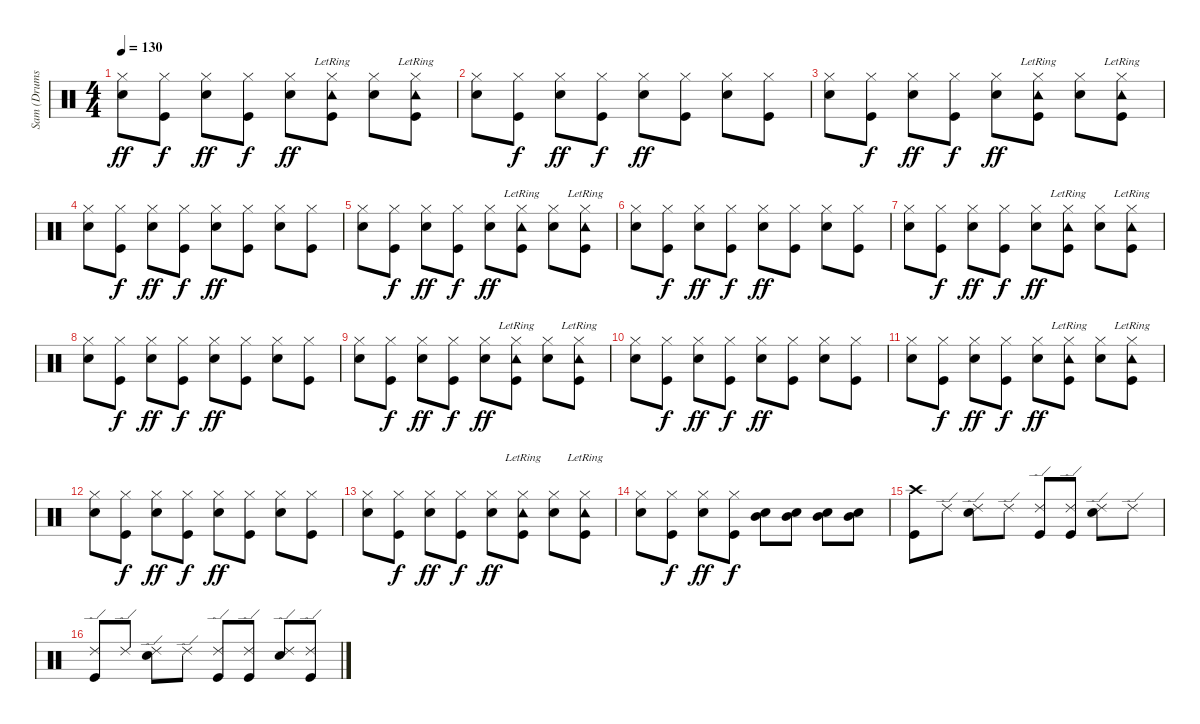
\track ("Sam (Drums)" "Sam (Drums") {instrument percussion}
\staff {score}
\articulation defaults
\ts (4 4)
\tempo 130
\clef neutral
\ks c
("Hi-Hat (closed)" "Snare (hit) 2").8{dy ff} ("Hi-Hat (closed)" "Kick (hit)").8{dy f} ("Hi-Hat (closed)" "Snare (hit) 2").8{dy ff} ("Hi-Hat (closed)" "Kick (hit)").8{dy f} ("Hi-Hat (closed)" "Snare (hit) 2").8{dy ff} ("Hi-Hat (closed)" "Tambourine (hit)"{lr} "Kick (hit)").8 ("Hi-Hat (closed)" "Snare (hit) 2").8 ("Hi-Hat (closed)" "Tambourine (hit)"{lr} "Kick (hit)").8 |
("Hi-Hat (closed)" "Snare (hit) 2").8 ("Hi-Hat (closed)" "Kick (hit)").8{dy f} ("Hi-Hat (closed)" "Snare (hit) 2").8{dy ff} ("Hi-Hat (closed)" "Kick (hit)").8{dy f} ("Hi-Hat (closed)" "Snare (hit) 2").8{dy ff} ("Hi-Hat (closed)" "Kick (hit)").8 ("Hi-Hat (closed)" "Snare (hit) 2").8 ("Hi-Hat (closed)" "Kick (hit)").8 |
("Hi-Hat (closed)" "Snare (hit) 2").8 ("Hi-Hat (closed)" "Kick (hit)").8{dy f} ("Hi-Hat (closed)" "Snare (hit) 2").8{dy ff} ("Hi-Hat (closed)" "Kick (hit)").8{dy f} ("Hi-Hat (closed)" "Snare (hit) 2").8{dy ff} ("Hi-Hat (closed)" "Tambourine (hit)"{lr} "Kick (hit)").8 ("Hi-Hat (closed)" "Snare (hit) 2").8 ("Hi-Hat (closed)" "Tambourine (hit)"{lr} "Kick (hit)").8 |
("Hi-Hat (closed)" "Snare (hit) 2").8 ("Hi-Hat (closed)" "Kick (hit)").8{dy f} ("Hi-Hat (closed)" "Snare (hit) 2").8{dy ff} ("Hi-Hat (closed)" "Kick (hit)").8{dy f} ("Hi-Hat (closed)" "Snare (hit) 2").8{dy ff} ("Hi-Hat (closed)" "Kick (hit)").8 ("Hi-Hat (closed)" "Snare (hit) 2").8 ("Hi-Hat (closed)" "Kick (hit)").8 |
("Hi-Hat (closed)" "Snare (hit) 2").8 ("Hi-Hat (closed)" "Kick (hit)").8{dy f} ("Hi-Hat (closed)" "Snare (hit) 2").8{dy ff} ("Hi-Hat (closed)" "Kick (hit)").8{dy f} ("Hi-Hat (closed)" "Snare (hit) 2").8{dy ff} ("Hi-Hat (closed)" "Tambourine (hit)"{lr} "Kick (hit)").8 ("Hi-Hat (closed)" "Snare (hit) 2").8 ("Hi-Hat (closed)" "Tambourine (hit)"{lr} "Kick (hit)").8 |
("Hi-Hat (closed)" "Snare (hit) 2").8 ("Hi-Hat (closed)" "Kick (hit)").8{dy f} ("Hi-Hat (closed)" "Snare (hit) 2").8{dy ff} ("Hi-Hat (closed)" "Kick (hit)").8{dy f} ("Hi-Hat (closed)" "Snare (hit) 2").8{dy ff} ("Hi-Hat (closed)" "Kick (hit)").8 ("Hi-Hat (closed)" "Snare (hit) 2").8 ("Hi-Hat (closed)" "Kick (hit)").8 |
("Hi-Hat (closed)" "Snare (hit) 2").8 ("Hi-Hat (closed)" "Kick (hit)").8{dy f} ("Hi-Hat (closed)" "Snare (hit) 2").8{dy ff} ("Hi-Hat (closed)" "Kick (hit)").8{dy f} ("Hi-Hat (closed)" "Snare (hit) 2").8{dy ff} ("Hi-Hat (closed)" "Tambourine (hit)"{lr} "Kick (hit)").8 ("Hi-Hat (closed)" "Snare (hit) 2").8 ("Hi-Hat (closed)" "Tambourine (hit)"{lr} "Kick (hit)").8 |
("Hi-Hat (closed)" "Snare (hit) 2").8 ("Hi-Hat (closed)" "Kick (hit)").8{dy f} ("Hi-Hat (closed)" "Snare (hit) 2").8{dy ff} ("Hi-Hat (closed)" "Kick (hit)").8{dy f} ("Hi-Hat (closed)" "Snare (hit) 2").8{dy ff} ("Hi-Hat (closed)" "Kick (hit)").8 ("Hi-Hat (closed)" "Snare (hit) 2").8 ("Hi-Hat (closed)" "Kick (hit)").8 |
("Hi-Hat (closed)" "Snare (hit) 2").8 ("Hi-Hat (closed)" "Kick (hit)").8{dy f} ("Hi-Hat (closed)" "Snare (hit) 2").8{dy ff} ("Hi-Hat (closed)" "Kick (hit)").8{dy f} ("Hi-Hat (closed)" "Snare (hit) 2").8{dy ff} ("Hi-Hat (closed)" "Tambourine (hit)"{lr} "Kick (hit)").8 ("Hi-Hat (closed)" "Snare (hit) 2").8 ("Hi-Hat (closed)" "Tambourine (hit)"{lr} "Kick (hit)").8 |
("Hi-Hat (closed)" "Snare (hit) 2").8 ("Hi-Hat (closed)" "Kick (hit)").8{dy f} ("Hi-Hat (closed)" "Snare (hit) 2").8{dy ff} ("Hi-Hat (closed)" "Kick (hit)").8{dy f} ("Hi-Hat (closed)" "Snare (hit) 2").8{dy ff} ("Hi-Hat (closed)" "Kick (hit)").8 ("Hi-Hat (closed)" "Snare (hit) 2").8 ("Hi-Hat (closed)" "Kick (hit)").8 |
("Hi-Hat (closed)" "Snare (hit) 2").8 ("Hi-Hat (closed)" "Kick (hit)").8{dy f} ("Hi-Hat (closed)" "Snare (hit) 2").8{dy ff} ("Hi-Hat (closed)" "Kick (hit)").8{dy f} ("Hi-Hat (closed)" "Snare (hit) 2").8{dy ff} ("Hi-Hat (closed)" "Tambourine (hit)"{lr} "Kick (hit)").8 ("Hi-Hat (closed)" "Snare (hit) 2").8 ("Hi-Hat (closed)" "Tambourine (hit)"{lr} "Kick (hit)").8 |
("Hi-Hat (closed)" "Snare (hit) 2").8 ("Hi-Hat (closed)" "Kick (hit)").8{dy f} ("Hi-Hat (closed)" "Snare (hit) 2").8{dy ff} ("Hi-Hat (closed)" "Kick (hit)").8{dy f} ("Hi-Hat (closed)" "Snare (hit) 2").8{dy ff} ("Hi-Hat (closed)" "Kick (hit)").8 ("Hi-Hat (closed)" "Snare (hit) 2").8 ("Hi-Hat (closed)" "Kick (hit)").8 |
("Hi-Hat (closed)" "Snare (hit) 2").8 ("Hi-Hat (closed)" "Kick (hit)").8{dy f} ("Hi-Hat (closed)" "Snare (hit) 2").8{dy ff} ("Hi-Hat (closed)" "Kick (hit)").8{dy f} ("Hi-Hat (closed)" "Snare (hit) 2").8{dy ff} ("Hi-Hat (closed)" "Tambourine (hit)"{lr} "Kick (hit)").8 ("Hi-Hat (closed)" "Snare (hit) 2").8 ("Hi-Hat (closed)" "Tambourine (hit)"{lr} "Kick (hit)").8 |
("Hi-Hat (closed)" "Snare (hit) 2").8 ("Hi-Hat (closed)" "Kick (hit)").8{dy f} ("Hi-Hat (closed)" "Snare (hit) 2").8{dy ff} ("Hi-Hat (closed)" "Kick (hit)").8{dy f} ("Mid Tom (hit)" "Snare (hit) 2").8 ("Mid Tom (hit)" "Snare (hit) 2").8 ("Mid Tom (hit)" "Snare (hit) 2").8 ("Mid Tom (hit)" "Snare (hit) 2").8 |
("Crash high (hit)" "Kick (hit)").8 "Ride (edge) 2".8 ("Ride (edge) 2" "Snare (hit) 2").8 "Ride (edge) 2".8 ("Ride (edge) 2" "Kick (hit)").8 ("Ride (edge) 2" "Kick (hit)").8 ("Ride (edge) 2" "Snare (hit) 2").8 "Ride (edge) 2".8 |
("Ride (edge) 2" "Kick (hit)").8 "Ride (edge) 2".8 ("Ride (edge) 2" "Snare (hit) 2").8 "Ride (edge) 2".8 ("Ride (edge) 2" "Kick (hit)").8 ("Ride (edge) 2" "Kick (hit)").8 ("Ride (edge) 2" "Snare (hit) 2").8 ("Ride (edge) 2" "Kick (hit)").8
